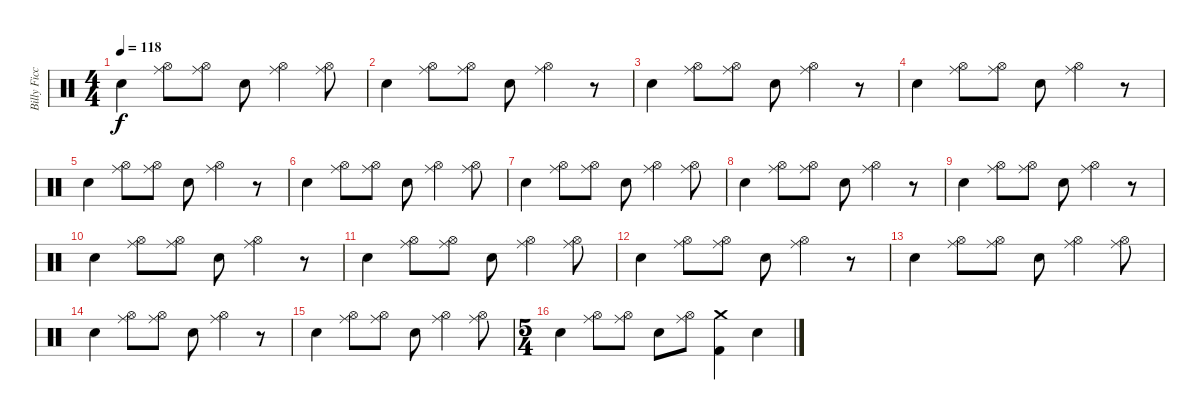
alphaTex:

\track ("Billy Ficca" "Billy Ficc") {instrument percussion}
\staff {score}
\articulation defaults
\ts (4 4)
\tempo 118
\clef neutral
\ks c "Snare (hit) 2".4{dy f}
("Hi-Hat (open)" "Ride (middle)").8 ("Hi-Hat (open)" "Ride (middle)").8 "Snare (hit) 2".8 ("Hi-Hat (open)" "Ride (middle)").4 ("Hi-Hat (open)" "Ride (middle)").8 |
"Snare (hit) 2".4 ("Hi-Hat (open)" "Ride (middle)").8 ("Hi-Hat (open)" "Ride (middle)").8 "Snare (hit) 2".8 ("Hi-Hat (open)" "Ride (middle)").4 r.8 |
"Snare (hit) 2".4 ("Hi-Hat (open)" "Ride (middle)").8 ("Hi-Hat (open)" "Ride (middle)").8 "Snare (hit) 2".8 ("Hi-Hat (open)" "Ride (middle)").4 r.8 |
"Snare (hit) 2".4 ("Hi-Hat (open)" "Ride (middle)").8 ("Hi-Hat (open)" "Ride (middle)").8 "Snare (hit) 2".8 ("Hi-Hat (open)" "Ride (middle)").4 r.8 |
"Snare (hit) 2".4 ("Hi-Hat (open)" "Ride (middle)").8 ("Hi-Hat (open)" "Ride (middle)").8 "Snare (hit) 2".8 ("Hi-Hat (open)" "Ride (middle)").4 r.8 |
"Snare (hit) 2".4 ("Hi-Hat (open)" "Ride (middle)").8 ("Hi-Hat (open)" "Ride (middle)").8 "Snare (hit) 2".8 ("Hi-Hat (open)" "Ride (middle)").4 ("Hi-Hat (open)" "Ride (middle)").8 |
"Snare (hit) 2".4 ("Hi-Hat (open)" "Ride (middle)").8 ("Hi-Hat (open)" "Ride (middle)").8 "Snare (hit) 2".8 ("Hi-Hat (open)" "Ride (middle)").4 ("Hi-Hat (open)" "Ride (middle)").8 |
"Snare (hit) 2".4 ("Hi-Hat (open)" "Ride (middle)").8 ("Hi-Hat (open)" "Ride (middle)").8 "Snare (hit) 2".8 ("Hi-Hat (open)" "Ride (middle)").4 r.8 |
"Snare (hit) 2".4 ("Hi-Hat (open)" "Ride (middle)").8 ("Hi-Hat (open)" "Ride (middle)").8 "Snare (hit) 2".8 ("Hi-Hat (open)" "Ride (middle)").4 r.8 |
"Snare (hit) 2".4 ("Hi-Hat (open)" "Ride (middle)").8 ("Hi-Hat (open)" "Ride (middle)").8 "Snare (hit) 2".8 ("Hi-Hat (open)" "Ride (middle)").4 r.8 |
"Snare (hit) 2".4 ("Hi-Hat (open)" "Ride (middle)").8 ("Hi-Hat (open)" "Ride (middle)").8 "Snare (hit) 2".8 ("Hi-Hat (open)" "Ride (middle)").4 ("Hi-Hat (open)" "Ride (middle)").8 |
"Snare (hit) 2".4 ("Hi-Hat (open)" "Ride (middle)").8 ("Hi-Hat (open)" "Ride (middle)").8 "Snare (hit) 2".8 ("Hi-Hat (open)" "Ride (middle)").4 r.8 |
"Snare (hit) 2".4 ("Hi-Hat (open)" "Ride (middle)").8 ("Hi-Hat (open)" "Ride (middle)").8 "Snare (hit) 2".8 ("Hi-Hat (open)" "Ride (middle)").4 ("Hi-Hat (open)" "Ride (middle)").8 |
"Snare (hit) 2".4 ("Hi-Hat (open)" "Ride (middle)").8 ("Hi-Hat (open)" "Ride (middle)").8 "Snare (hit) 2".8 ("Hi-Hat (open)" "Ride (middle)").4 r.8 |
"Snare (hit) 2".4 ("Hi-Hat (open)" "Ride (middle)").8 ("Hi-Hat (open)" "Ride (middle)").8 "Snare (hit) 2".8 ("Hi-Hat (open)" "Ride (middle)").4 ("Hi-Hat (open)" "Ride (middle)").8 |
\ts (5 4)
"Snare (hit) 2".4 ("Hi-Hat (open)" "Ride (middle)").8 ("Hi-Hat (open)" "Ride (middle)").8 "Snare (hit) 2".8 ("Hi-Hat (open)" "Ride (middle)").8 ("Crash medium (hit)" "Kick (hit) 2").4 "Electric Snare (hit)".4
